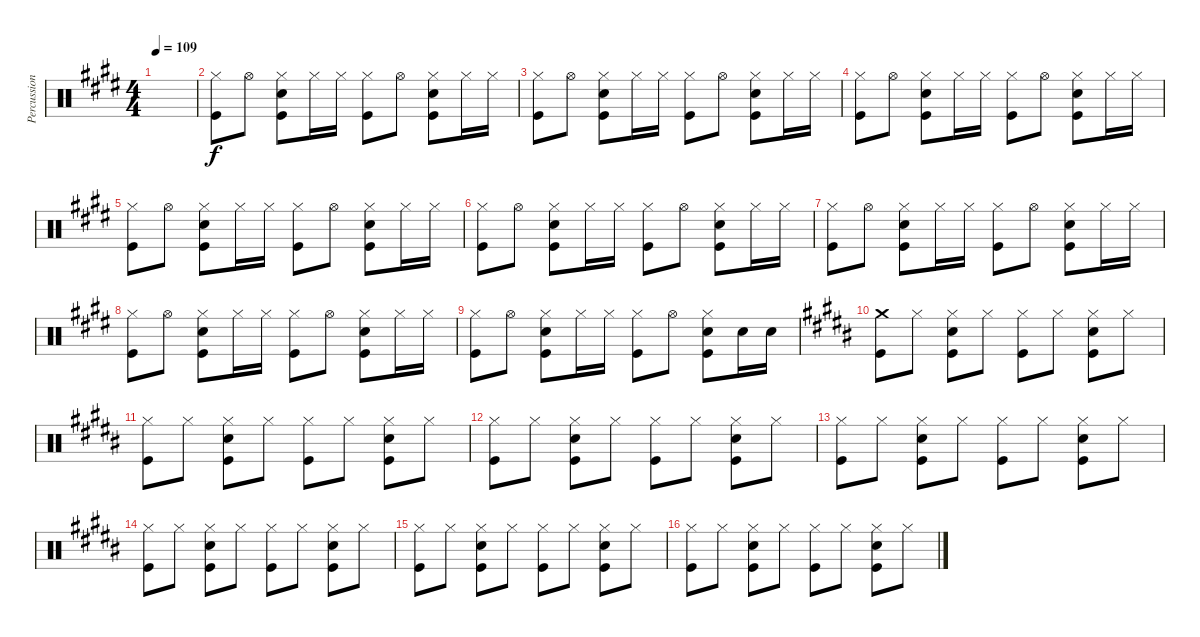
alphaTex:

\track ("Percussion" "Percussion") {instrument percussion}
\staff {score}
\articulation defaults
\ts (4 4)
\tempo 109
\clef neutral
\ks e
|
("Hi-Hat (closed)" "Kick (hit)").8 "Hi-Hat (open)".8 ("Hi-Hat (closed)" "Snare (hit) 2" "Kick (hit)").8 "Hi-Hat (closed)".16 "Hi-Hat (closed)".16 ("Hi-Hat (closed)" "Kick (hit)").8 "Hi-Hat (open)".8 ("Hi-Hat (closed)" "Snare (hit) 2" "Kick (hit)").8 "Hi-Hat (closed)".16 "Hi-Hat (closed)".16 |
("Hi-Hat (closed)" "Kick (hit)").8 "Hi-Hat (open)".8 ("Hi-Hat (closed)" "Snare (hit) 2" "Kick (hit)").8 "Hi-Hat (closed)".16 "Hi-Hat (closed)".16 ("Hi-Hat (closed)" "Kick (hit)").8 "Hi-Hat (open)".8 ("Hi-Hat (closed)" "Snare (hit) 2" "Kick (hit)").8 "Hi-Hat (closed)".16 "Hi-Hat (closed)".16 |
("Hi-Hat (closed)" "Kick (hit)").8 "Hi-Hat (open)".8 ("Hi-Hat (closed)" "Snare (hit) 2" "Kick (hit)").8 "Hi-Hat (closed)".16 "Hi-Hat (closed)".16 ("Hi-Hat (closed)" "Kick (hit)").8 "Hi-Hat (open)".8 ("Hi-Hat (closed)" "Snare (hit) 2" "Kick (hit)").8 "Hi-Hat (closed)".16 "Hi-Hat (closed)".16 |
("Hi-Hat (closed)" "Kick (hit)").8 "Hi-Hat (open)".8 ("Hi-Hat (closed)" "Snare (hit) 2" "Kick (hit)").8 "Hi-Hat (closed)".16 "Hi-Hat (closed)".16 ("Hi-Hat (closed)" "Kick (hit)").8 "Hi-Hat (open)".8 ("Hi-Hat (closed)" "Snare (hit) 2" "Kick (hit)").8 "Hi-Hat (closed)".16 "Hi-Hat (closed)".16 |
("Hi-Hat (closed)" "Kick (hit)").8 "Hi-Hat (open)".8 ("Hi-Hat (closed)" "Snare (hit) 2" "Kick (hit)").8 "Hi-Hat (closed)".16 "Hi-Hat (closed)".16 ("Hi-Hat (closed)" "Kick (hit)").8 "Hi-Hat (open)".8 ("Hi-Hat (closed)" "Snare (hit) 2" "Kick (hit)").8 "Hi-Hat (closed)".16 "Hi-Hat (closed)".16 |
("Hi-Hat (closed)" "Kick (hit)").8 "Hi-Hat (open)".8 ("Hi-Hat (closed)" "Snare (hit) 2" "Kick (hit)").8 "Hi-Hat (closed)".16 "Hi-Hat (closed)".16 ("Hi-Hat (closed)" "Kick (hit)").8 "Hi-Hat (open)".8 ("Hi-Hat (closed)" "Snare (hit) 2" "Kick (hit)").8 "Hi-Hat (closed)".16 "Hi-Hat (closed)".16 |
("Hi-Hat (closed)" "Kick (hit)").8 "Hi-Hat (open)".8 ("Hi-Hat (closed)" "Snare (hit) 2" "Kick (hit)").8 "Hi-Hat (closed)".16 "Hi-Hat (closed)".16 ("Hi-Hat (closed)" "Kick (hit)").8 "Hi-Hat (open)".8 ("Hi-Hat (closed)" "Snare (hit) 2" "Kick (hit)").8 "Hi-Hat (closed)".16 "Hi-Hat (closed)".16 |
("Hi-Hat (closed)" "Kick (hit)").8 "Hi-Hat (open)".8 ("Hi-Hat (closed)" "Snare (hit) 2" "Kick (hit)").8 "Hi-Hat (closed)".16 "Hi-Hat (closed)".16 ("Hi-Hat (closed)" "Kick (hit)").8 "Hi-Hat (open)".8 ("Hi-Hat (closed)" "Snare (hit) 2" "Kick (hit)").8 "Snare (hit) 2".16 "Snare (hit) 2".16 |
\ks b
("Crash medium (hit)" "Kick (hit)").8 "Hi-Hat (closed)".8 ("Hi-Hat (closed)" "Snare (hit) 2" "Kick (hit)").8 "Hi-Hat (closed)".8 ("Hi-Hat (closed)" "Kick (hit)").8 "Hi-Hat (closed)".8 ("Hi-Hat (closed)" "Snare (hit) 2" "Kick (hit)").8 "Hi-Hat (closed)".8 |
("Hi-Hat (closed)" "Kick (hit)").8 "Hi-Hat (closed)".8 ("Hi-Hat (closed)" "Snare (hit) 2" "Kick (hit)").8 "Hi-Hat (closed)".8 ("Hi-Hat (closed)" "Kick (hit)").8 "Hi-Hat (closed)".8 ("Hi-Hat (closed)" "Snare (hit) 2" "Kick (hit)").8 "Hi-Hat (closed)".8 |
("Hi-Hat (closed)" "Kick (hit)").8 "Hi-Hat (closed)".8 ("Hi-Hat (closed)" "Snare (hit) 2" "Kick (hit)").8 "Hi-Hat (closed)".8 ("Hi-Hat (closed)" "Kick (hit)").8 "Hi-Hat (closed)".8 ("Hi-Hat (closed)" "Snare (hit) 2" "Kick (hit)").8 "Hi-Hat (closed)".8 |
("Hi-Hat (closed)" "Kick (hit)").8 "Hi-Hat (closed)".8 ("Hi-Hat (closed)" "Snare (hit) 2" "Kick (hit)").8 "Hi-Hat (closed)".8 ("Hi-Hat (closed)" "Kick (hit)").8 "Hi-Hat (closed)".8 ("Hi-Hat (closed)" "Snare (hit) 2" "Kick (hit)").8 "Hi-Hat (closed)".8 |
("Hi-Hat (closed)" "Kick (hit)").8 "Hi-Hat (closed)".8 ("Hi-Hat (closed)" "Snare (hit) 2" "Kick (hit)").8 "Hi-Hat (closed)".8 ("Hi-Hat (closed)" "Kick (hit)").8 "Hi-Hat (closed)".8 ("Hi-Hat (closed)" "Snare (hit) 2" "Kick (hit)").8 "Hi-Hat (closed)".8 |
("Hi-Hat (closed)" "Kick (hit)").8 "Hi-Hat (closed)".8 ("Hi-Hat (closed)" "Snare (hit) 2" "Kick (hit)").8 "Hi-Hat (closed)".8 ("Hi-Hat (closed)" "Kick (hit)").8 "Hi-Hat (closed)".8 ("Hi-Hat (closed)" "Snare (hit) 2" "Kick (hit)").8 "Hi-Hat (closed)".8 |
("Hi-Hat (closed)" "Kick (hit)").8 "Hi-Hat (closed)".8 ("Hi-Hat (closed)" "Snare (hit) 2" "Kick (hit)").8 "Hi-Hat (closed)".8 ("Hi-Hat (closed)" "Kick (hit)").8 "Hi-Hat (closed)".8 ("Hi-Hat (closed)" "Snare (hit) 2" "Kick (hit)").8 "Hi-Hat (closed)".8
